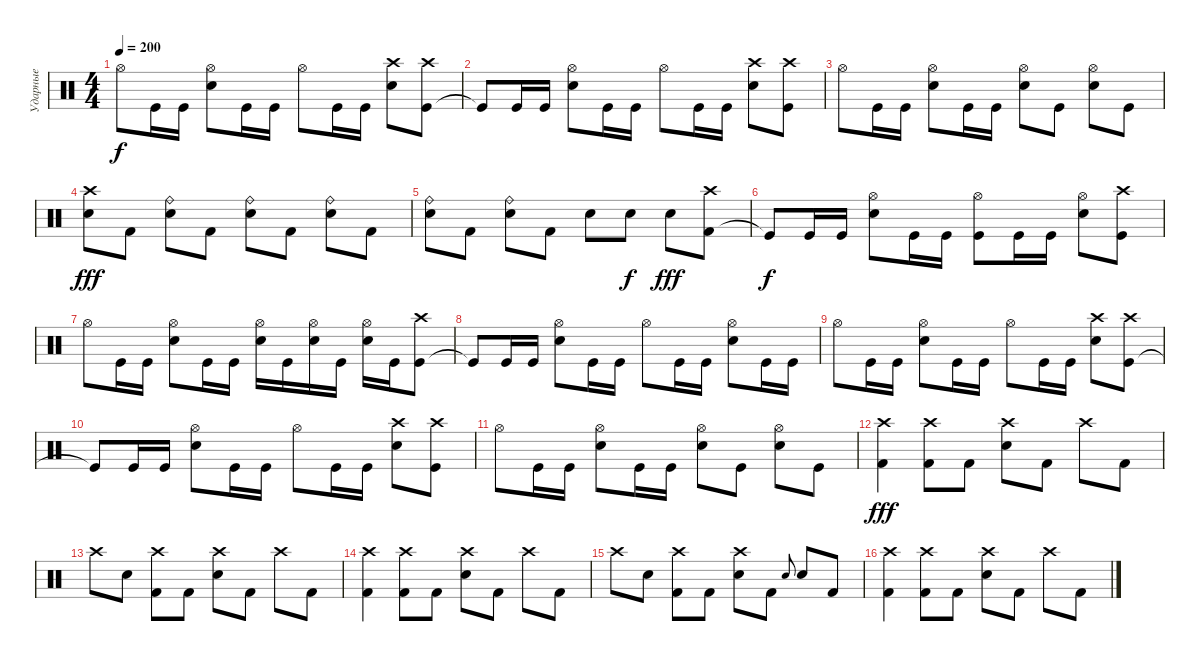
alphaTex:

\track ("Ударные" "Ударные") {instrument percussion}
\staff {score}
\articulation defaults
\ts (4 4)
\tempo 200
\clef neutral
\ks c "Hi-Hat (open)".8{dy f} "Kick (hit)".16 "Kick (hit)".16
("Snare (hit) 2" "Hi-Hat (open)").8 "Kick (hit)".16 "Kick (hit)".16 "Hi-Hat (open)".8 "Kick (hit)".16 "Kick (hit)".16 ("Snare (hit) 2" "Crash high (hit)").8 ("Kick (hit)" "Crash high (hit)").8 |
"Kick (hit)"{t}.8 "Kick (hit)".16 "Kick (hit)".16 ("Snare (hit) 2" "Hi-Hat (open)").8 "Kick (hit)".16 "Kick (hit)".16 "Hi-Hat (open)".8 "Kick (hit)".16 "Kick (hit)".16 ("Snare (hit) 2" "Crash high (hit)").8 ("Kick (hit)" "Crash high (hit)").8 |
"Hi-Hat (open)".8 "Kick (hit)".16 "Kick (hit)".16 ("Snare (hit) 2" "Hi-Hat (open)").8 "Kick (hit)".16 "Kick (hit)".16 ("Hi-Hat (open)" "Snare (hit) 2").8 "Kick (hit)".8 ("Snare (hit) 2" "Hi-Hat (open)").8 "Kick (hit)".8 |
("Electric Snare (hit)" "Crash high (hit)").8{dy fff} "Kick (hit) 2".8 ("Ride (bell)" "Electric Snare (hit)").8 "Kick (hit) 2".8 ("Ride (bell)" "Electric Snare (hit)").8 "Kick (hit) 2".8 ("Ride (bell)" "Electric Snare (hit)").8 "Kick (hit) 2".8 |
("Ride (bell)" "Electric Snare (hit)").8 "Kick (hit) 2".8 ("Ride (bell)" "Electric Snare (hit)").8 "Kick (hit) 2".8 "Electric Snare (hit)".8 "Snare (hit) 2".8{dy f} "Electric Snare (hit)".8{dy fff} ("Kick (hit) 2" "Crash high (hit)").8 |
"Kick (hit)"{t}.8{dy f} "Kick (hit)".16 "Kick (hit)".16 ("Snare (hit) 2" "Hi-Hat (open)").8 "Kick (hit)".16 "Kick (hit)".16 ("Hi-Hat (open)" "Kick (hit)").8 "Kick (hit)".16 "Kick (hit)".16 ("Snare (hit) 2" "Hi-Hat (open)").8 ("Kick (hit)" "Crash high (hit)").8 |
"Hi-Hat (open)".8 "Kick (hit)".16 "Kick (hit)".16 ("Snare (hit) 2" "Hi-Hat (open)").8 "Kick (hit)".16 "Kick (hit)".16 ("Hi-Hat (open)" "Snare (hit) 2").16 "Kick (hit)".16 ("Snare (hit) 2" "Hi-Hat (open)").16 "Kick (hit)".16 ("Snare (hit) 2" "Hi-Hat (open)").16 "Kick (hit)".16 ("Kick (hit)" "Crash high (hit)").8 |
"Kick (hit)"{t}.8 "Kick (hit)".16 "Kick (hit)".16 ("Snare (hit) 2" "Hi-Hat (open)").8 "Kick (hit)".16 "Kick (hit)".16 "Hi-Hat (open)".8 "Kick (hit)".16 "Kick (hit)".16 ("Snare (hit) 2" "Hi-Hat (open)").8 "Kick (hit)".16 "Kick (hit)".16 |
"Hi-Hat (open)".8 "Kick (hit)".16 "Kick (hit)".16 ("Snare (hit) 2" "Hi-Hat (open)").8 "Kick (hit)".16 "Kick (hit)".16 "Hi-Hat (open)".8 "Kick (hit)".16 "Kick (hit)".16 ("Snare (hit) 2" "Crash high (hit)").8 ("Kick (hit)" "Crash high (hit)").8 |
"Kick (hit)"{t}.8 "Kick (hit)".16 "Kick (hit)".16 ("Snare (hit) 2" "Hi-Hat (open)").8 "Kick (hit)".16 "Kick (hit)".16 "Hi-Hat (open)".8 "Kick (hit)".16 "Kick (hit)".16 ("Snare (hit) 2" "Crash high (hit)").8 ("Kick (hit)" "Crash high (hit)").8 |
"Hi-Hat (open)".8 "Kick (hit)".16 "Kick (hit)".16 ("Snare (hit) 2" "Hi-Hat (open)").8 "Kick (hit)".16 "Kick (hit)".16 ("Hi-Hat (open)" "Snare (hit) 2").8 "Kick (hit)".8 ("Snare (hit) 2" "Hi-Hat (open)").8 "Kick (hit)".8 |
("Crash high (hit)" "Kick (hit) 2").4{dy fff} ("Crash high (hit)" "Kick (hit) 2").8 "Kick (hit) 2".8 ("Crash high (hit)" "Electric Snare (hit)").8 "Kick (hit) 2".8 "Crash high (hit)".8 "Kick (hit) 2".8 |
"Crash high (hit)".8 "Electric Snare (hit)".8 ("Crash high (hit)" "Kick (hit) 2").8 "Kick (hit) 2".8 ("Crash high (hit)" "Electric Snare (hit)").8 "Kick (hit) 2".8 "Crash high (hit)".8 "Kick (hit) 2".8 |
("Crash high (hit)" "Kick (hit) 2").4 ("Crash high (hit)" "Kick (hit) 2").8 "Kick (hit) 2".8 ("Crash high (hit)" "Electric Snare (hit)").8 "Kick (hit) 2".8 "Crash high (hit)".8 "Kick (hit) 2".8 |
"Crash high (hit)".8 "Electric Snare (hit)".8 ("Crash high (hit)" "Kick (hit) 2").8 "Kick (hit) 2".8 ("Crash high (hit)" "Electric Snare (hit)").8 "Kick (hit) 2".8 "Electric Snare (hit)"{h}.8{gr onbeat} "Electric Snare (hit)".8 "Kick (hit) 2".8 |
("Crash high (hit)" "Kick (hit) 2").4 ("Crash high (hit)" "Kick (hit) 2").8 "Kick (hit) 2".8 ("Crash high (hit)" "Electric Snare (hit)").8 "Kick (hit) 2".8 "Crash high (hit)".8 "Kick (hit) 2".8
